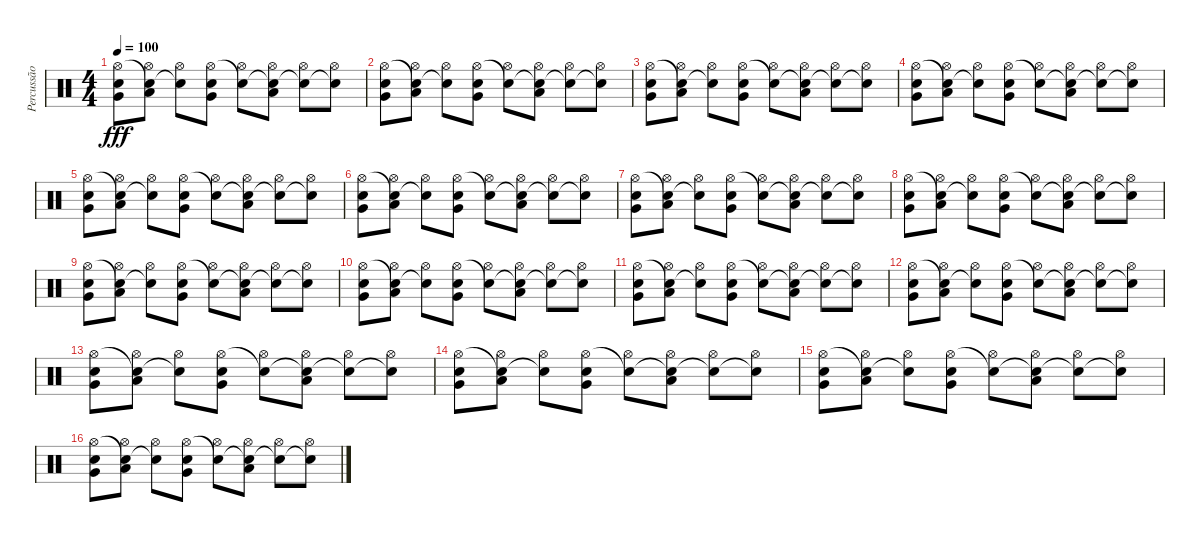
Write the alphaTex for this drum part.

\track ("Percussão" "Percussão") {instrument percussion}
\staff {score}
\articulation defaults
\ts (4 4)
\tempo 100
\clef neutral
\ks c
("Hi-Hat (open)" "Very Low Tom (hit)" "Snare (hit) 2").8{dy fff} ("Snare (hit)"{t} "Hi-Hat (open)" "Low Tom (hit)").8 ("Snare (hit)"{t} "Hi-Hat (open)").8 ("Hi-Hat (open)" "Very Low Tom (hit)" "Snare (hit) 2").8 ("Snare (hit)"{t} "Hi-Hat (open)").8 ("Snare (hit)"{t} "Hi-Hat (open)" "Low Tom (hit)").8 ("Snare (hit)"{t} "Hi-Hat (open)").8 ("Snare (hit)"{t} "Hi-Hat (open)").8 |
("Hi-Hat (open)" "Very Low Tom (hit)" "Snare (hit) 2").8 ("Snare (hit)"{t} "Hi-Hat (open)" "Low Tom (hit)").8 ("Snare (hit)"{t} "Hi-Hat (open)").8 ("Hi-Hat (open)" "Very Low Tom (hit)" "Snare (hit) 2").8 ("Snare (hit)"{t} "Hi-Hat (open)").8 ("Snare (hit)"{t} "Hi-Hat (open)" "Low Tom (hit)").8 ("Snare (hit)"{t} "Hi-Hat (open)").8 ("Snare (hit)"{t} "Hi-Hat (open)").8 |
("Hi-Hat (open)" "Very Low Tom (hit)" "Snare (hit) 2").8 ("Snare (hit)"{t} "Hi-Hat (open)" "Low Tom (hit)").8 ("Snare (hit)"{t} "Hi-Hat (open)").8 ("Hi-Hat (open)" "Very Low Tom (hit)" "Snare (hit) 2").8 ("Snare (hit)"{t} "Hi-Hat (open)").8 ("Snare (hit)"{t} "Hi-Hat (open)" "Low Tom (hit)").8 ("Snare (hit)"{t} "Hi-Hat (open)").8 ("Snare (hit)"{t} "Hi-Hat (open)").8 |
("Hi-Hat (open)" "Very Low Tom (hit)" "Snare (hit) 2").8 ("Snare (hit)"{t} "Hi-Hat (open)" "Low Tom (hit)").8 ("Snare (hit)"{t} "Hi-Hat (open)").8 ("Hi-Hat (open)" "Very Low Tom (hit)" "Snare (hit) 2").8 ("Snare (hit)"{t} "Hi-Hat (open)").8 ("Snare (hit)"{t} "Hi-Hat (open)" "Low Tom (hit)").8 ("Snare (hit)"{t} "Hi-Hat (open)").8 ("Snare (hit)"{t} "Hi-Hat (open)").8 |
("Hi-Hat (open)" "Very Low Tom (hit)" "Snare (hit) 2").8 ("Snare (hit)"{t} "Hi-Hat (open)" "Low Tom (hit)").8 ("Snare (hit)"{t} "Hi-Hat (open)").8 ("Hi-Hat (open)" "Very Low Tom (hit)" "Snare (hit) 2").8 ("Snare (hit)"{t} "Hi-Hat (open)").8 ("Snare (hit)"{t} "Hi-Hat (open)" "Low Tom (hit)").8 ("Snare (hit)"{t} "Hi-Hat (open)").8 ("Snare (hit)"{t} "Hi-Hat (open)").8 |
("Hi-Hat (open)" "Very Low Tom (hit)" "Snare (hit) 2").8 ("Snare (hit)"{t} "Hi-Hat (open)" "Low Tom (hit)").8 ("Snare (hit)"{t} "Hi-Hat (open)").8 ("Hi-Hat (open)" "Very Low Tom (hit)" "Snare (hit) 2").8 ("Snare (hit)"{t} "Hi-Hat (open)").8 ("Snare (hit)"{t} "Hi-Hat (open)" "Low Tom (hit)").8 ("Snare (hit)"{t} "Hi-Hat (open)").8 ("Snare (hit)"{t} "Hi-Hat (open)").8 |
("Hi-Hat (open)" "Very Low Tom (hit)" "Snare (hit) 2").8 ("Snare (hit)"{t} "Hi-Hat (open)" "Low Tom (hit)").8 ("Snare (hit)"{t} "Hi-Hat (open)").8 ("Hi-Hat (open)" "Very Low Tom (hit)" "Snare (hit) 2").8 ("Snare (hit)"{t} "Hi-Hat (open)").8 ("Snare (hit)"{t} "Hi-Hat (open)" "Low Tom (hit)").8 ("Snare (hit)"{t} "Hi-Hat (open)").8 ("Snare (hit)"{t} "Hi-Hat (open)").8 |
("Hi-Hat (open)" "Very Low Tom (hit)" "Snare (hit) 2").8 ("Snare (hit)"{t} "Hi-Hat (open)" "Low Tom (hit)").8 ("Snare (hit)"{t} "Hi-Hat (open)").8 ("Hi-Hat (open)" "Very Low Tom (hit)" "Snare (hit) 2").8 ("Snare (hit)"{t} "Hi-Hat (open)").8 ("Snare (hit)"{t} "Hi-Hat (open)" "Low Tom (hit)").8 ("Snare (hit)"{t} "Hi-Hat (open)").8 ("Snare (hit)"{t} "Hi-Hat (open)").8 |
("Hi-Hat (open)" "Very Low Tom (hit)" "Snare (hit) 2").8 ("Snare (hit)"{t} "Hi-Hat (open)" "Low Tom (hit)").8 ("Snare (hit)"{t} "Hi-Hat (open)").8 ("Hi-Hat (open)" "Very Low Tom (hit)" "Snare (hit) 2").8 ("Snare (hit)"{t} "Hi-Hat (open)").8 ("Snare (hit)"{t} "Hi-Hat (open)" "Low Tom (hit)").8 ("Snare (hit)"{t} "Hi-Hat (open)").8 ("Snare (hit)"{t} "Hi-Hat (open)").8 |
("Hi-Hat (open)" "Very Low Tom (hit)" "Snare (hit) 2").8 ("Snare (hit)"{t} "Hi-Hat (open)" "Low Tom (hit)").8 ("Snare (hit)"{t} "Hi-Hat (open)").8 ("Hi-Hat (open)" "Very Low Tom (hit)" "Snare (hit) 2").8 ("Snare (hit)"{t} "Hi-Hat (open)").8 ("Snare (hit)"{t} "Hi-Hat (open)" "Low Tom (hit)").8 ("Snare (hit)"{t} "Hi-Hat (open)").8 ("Snare (hit)"{t} "Hi-Hat (open)").8 |
("Hi-Hat (open)" "Very Low Tom (hit)" "Snare (hit) 2").8 ("Snare (hit)"{t} "Hi-Hat (open)" "Low Tom (hit)").8 ("Snare (hit)"{t} "Hi-Hat (open)").8 ("Hi-Hat (open)" "Very Low Tom (hit)" "Snare (hit) 2").8 ("Snare (hit)"{t} "Hi-Hat (open)").8 ("Snare (hit)"{t} "Hi-Hat (open)" "Low Tom (hit)").8 ("Snare (hit)"{t} "Hi-Hat (open)").8 ("Snare (hit)"{t} "Hi-Hat (open)").8 |
("Hi-Hat (open)" "Very Low Tom (hit)" "Snare (hit) 2").8 ("Snare (hit)"{t} "Hi-Hat (open)" "Low Tom (hit)").8 ("Snare (hit)"{t} "Hi-Hat (open)").8 ("Hi-Hat (open)" "Very Low Tom (hit)" "Snare (hit) 2").8 ("Snare (hit)"{t} "Hi-Hat (open)").8 ("Snare (hit)"{t} "Hi-Hat (open)" "Low Tom (hit)").8 ("Snare (hit)"{t} "Hi-Hat (open)").8 ("Snare (hit)"{t} "Hi-Hat (open)").8 |
("Hi-Hat (open)" "Very Low Tom (hit)" "Snare (hit) 2").8 ("Snare (hit)"{t} "Hi-Hat (open)" "Low Tom (hit)").8 ("Snare (hit)"{t} "Hi-Hat (open)").8 ("Hi-Hat (open)" "Very Low Tom (hit)" "Snare (hit) 2").8 ("Snare (hit)"{t} "Hi-Hat (open)").8 ("Snare (hit)"{t} "Hi-Hat (open)" "Low Tom (hit)").8 ("Snare (hit)"{t} "Hi-Hat (open)").8 ("Snare (hit)"{t} "Hi-Hat (open)").8 |
("Hi-Hat (open)" "Very Low Tom (hit)" "Snare (hit) 2").8 ("Snare (hit)"{t} "Hi-Hat (open)" "Low Tom (hit)").8 ("Snare (hit)"{t} "Hi-Hat (open)").8 ("Hi-Hat (open)" "Very Low Tom (hit)" "Snare (hit) 2").8 ("Snare (hit)"{t} "Hi-Hat (open)").8 ("Snare (hit)"{t} "Hi-Hat (open)" "Low Tom (hit)").8 ("Snare (hit)"{t} "Hi-Hat (open)").8 ("Snare (hit)"{t} "Hi-Hat (open)").8 |
("Hi-Hat (open)" "Very Low Tom (hit)" "Snare (hit) 2").8 ("Snare (hit)"{t} "Hi-Hat (open)" "Low Tom (hit)").8 ("Snare (hit)"{t} "Hi-Hat (open)").8 ("Hi-Hat (open)" "Very Low Tom (hit)" "Snare (hit) 2").8 ("Snare (hit)"{t} "Hi-Hat (open)").8 ("Snare (hit)"{t} "Hi-Hat (open)" "Low Tom (hit)").8 ("Snare (hit)"{t} "Hi-Hat (open)").8 ("Snare (hit)"{t} "Hi-Hat (open)").8 |
("Hi-Hat (open)" "Very Low Tom (hit)" "Snare (hit) 2").8 ("Snare (hit)"{t} "Hi-Hat (open)" "Low Tom (hit)").8 ("Snare (hit)"{t} "Hi-Hat (open)").8 ("Hi-Hat (open)" "Very Low Tom (hit)" "Snare (hit) 2").8 ("Snare (hit)"{t} "Hi-Hat (open)").8 ("Snare (hit)"{t} "Hi-Hat (open)" "Low Tom (hit)").8 ("Snare (hit)"{t} "Hi-Hat (open)").8 ("Snare (hit)"{t} "Hi-Hat (open)").8
